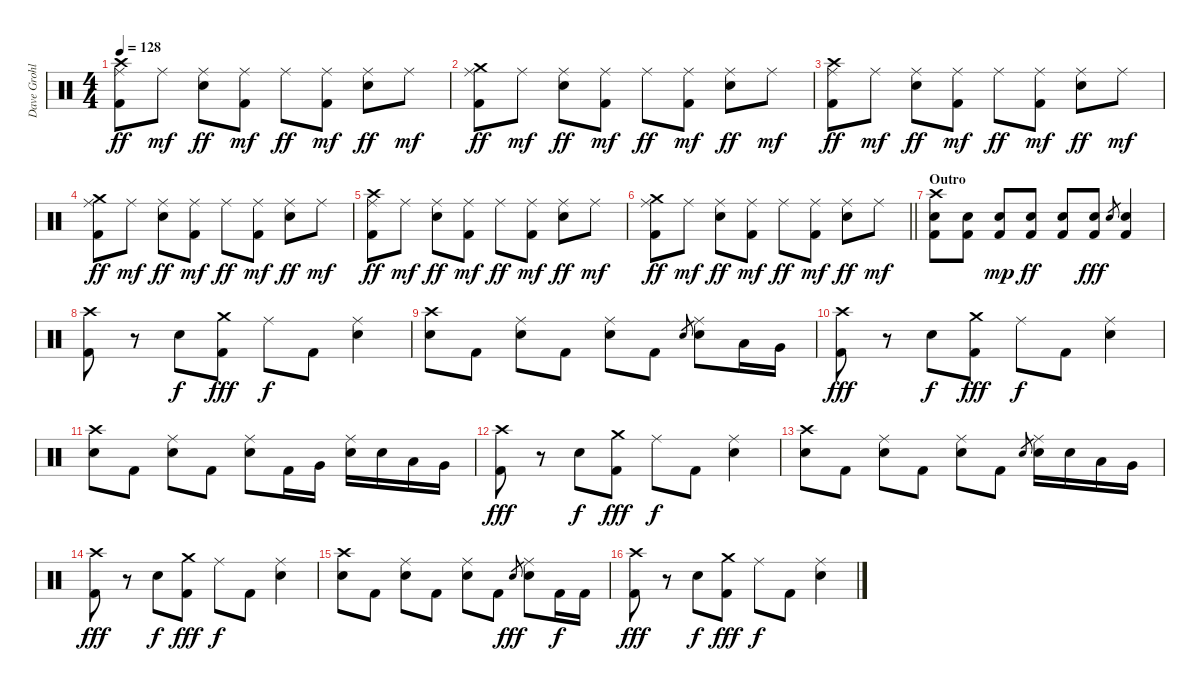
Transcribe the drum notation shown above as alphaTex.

\track ("Dave Grohl" "Dave Grohl") {instrument percussion}
\staff {score}
\articulation defaults
\ts (4 4)
\tempo 128
\clef neutral
\ks c
("Crash high (hit)" "Ride (middle)" "Kick (hit) 2").8{dy ff} "Ride (middle)".8{dy mf} ("Ride (middle)" "Snare (hit) 2").8{dy ff} ("Ride (middle)" "Kick (hit) 2").8{dy mf} "Ride (middle)".8{dy ff} ("Ride (middle)" "Kick (hit) 2").8{dy mf} ("Ride (middle)" "Snare (hit) 2").8{dy ff} "Ride (middle)".8{dy mf} |
("Crash medium (hit)" "Ride (middle)" "Kick (hit) 2").8{dy ff} "Ride (middle)".8{dy mf} ("Ride (middle)" "Snare (hit) 2").8{dy ff} ("Ride (middle)" "Kick (hit) 2").8{dy mf} "Ride (middle)".8{dy ff} ("Ride (middle)" "Kick (hit) 2").8{dy mf} ("Ride (middle)" "Snare (hit) 2").8{dy ff} "Ride (middle)".8{dy mf} |
("Crash high (hit)" "Ride (middle)" "Kick (hit) 2").8{dy ff} "Ride (middle)".8{dy mf} ("Ride (middle)" "Snare (hit) 2").8{dy ff} ("Ride (middle)" "Kick (hit) 2").8{dy mf} "Ride (middle)".8{dy ff} ("Ride (middle)" "Kick (hit) 2").8{dy mf} ("Ride (middle)" "Snare (hit) 2").8{dy ff} "Ride (middle)".8{dy mf} |
("Crash medium (hit)" "Ride (middle)" "Kick (hit) 2").8{dy ff} "Ride (middle)".8{dy mf} ("Ride (middle)" "Snare (hit) 2").8{dy ff} ("Ride (middle)" "Kick (hit) 2").8{dy mf} "Ride (middle)".8{dy ff} ("Ride (middle)" "Kick (hit) 2").8{dy mf} ("Ride (middle)" "Snare (hit) 2").8{dy ff} "Ride (middle)".8{dy mf} |
("Crash high (hit)" "Ride (middle)" "Kick (hit) 2").8{dy ff} "Ride (middle)".8{dy mf} ("Ride (middle)" "Snare (hit) 2").8{dy ff} ("Ride (middle)" "Kick (hit) 2").8{dy mf} "Ride (middle)".8{dy ff} ("Ride (middle)" "Kick (hit) 2").8{dy mf} ("Ride (middle)" "Snare (hit) 2").8{dy ff} "Ride (middle)".8{dy mf} |
\barLineRight lightlight
("Crash medium (hit)" "Ride (middle)" "Kick (hit) 2").8{dy ff} "Ride (middle)".8{dy mf} ("Ride (middle)" "Snare (hit) 2").8{dy ff} ("Ride (middle)" "Kick (hit) 2").8{dy mf} "Ride (middle)".8{dy ff} ("Ride (middle)" "Kick (hit) 2").8{dy mf} ("Ride (middle)" "Snare (hit) 2").8{dy ff} "Ride (middle)".8{dy mf} |
\section ("" "Outro")
("Crash high (hit)" "Snare (hit) 2" "Kick (hit) 2").8 ("Snare (hit) 2" "Kick (hit) 2").8 ("Snare (hit) 2" "Kick (hit) 2").8{dy mp} ("Snare (hit) 2" "Kick (hit) 2").8{dy ff} ("Snare (hit) 2" "Kick (hit) 2").8 ("Snare (hit) 2" "Kick (hit) 2").8{dy fff} "Snare (hit) 2".8{gr} ("Snare (hit) 2" "Kick (hit) 2").4 |
("Crash high (hit)" "Kick (hit) 2").8 r.8 "Snare (hit) 2".8{dy f} ("Crash medium (hit)" "Kick (hit) 2").8{dy fff} "Ride (middle)".8{dy f} "Kick (hit) 2".8 ("Ride (middle)" "Snare (hit) 2").4 |
("Crash high (hit)" "Snare (hit) 2").8 "Kick (hit) 2".8 ("Ride (middle)" "Snare (hit) 2").8 "Kick (hit) 2".8 ("Ride (middle)" "Snare (hit) 2").8 "Kick (hit) 2".8 "Snare (hit) 2".8{gr} ("Ride (middle)" "Snare (hit) 2").8 "Low Tom (hit)".16 "Very Low Tom (hit)".16 |
("Crash high (hit)" "Kick (hit) 2").8{dy fff} r.8 "Snare (hit) 2".8{dy f} ("Crash medium (hit)" "Kick (hit) 2").8{dy fff} "Ride (middle)".8{dy f} "Kick (hit) 2".8 ("Ride (middle)" "Snare (hit) 2").4 |
("Crash high (hit)" "Snare (hit) 2").8 "Kick (hit) 2".8 ("Ride (middle)" "Snare (hit) 2").8 "Kick (hit) 2".8 ("Ride (middle)" "Snare (hit) 2").8 "Kick (hit) 2".16 "Very Low Tom (hit)".16 ("Ride (middle)" "Snare (hit) 2").16 "Snare (hit) 2".16 "Low Tom (hit)".16 "Very Low Tom (hit)".16 |
("Crash high (hit)" "Kick (hit) 2").8{dy fff} r.8 "Snare (hit) 2".8{dy f} ("Crash medium (hit)" "Kick (hit) 2").8{dy fff} "Ride (middle)".8{dy f} "Kick (hit) 2".8 ("Ride (middle)" "Snare (hit) 2").4 |
("Crash high (hit)" "Snare (hit) 2").8 "Kick (hit) 2".8 ("Ride (middle)" "Snare (hit) 2").8 "Kick (hit) 2".8 ("Ride (middle)" "Snare (hit) 2").8 "Kick (hit) 2".8 "Snare (hit) 2".8{gr} ("Ride (middle)" "Snare (hit) 2").16 "Snare (hit) 2".16 "Low Tom (hit)".16 "Very Low Tom (hit)".16 |
("Crash high (hit)" "Kick (hit) 2").8{dy fff} r.8 "Snare (hit) 2".8{dy f} ("Crash medium (hit)" "Kick (hit) 2").8{dy fff} "Ride (middle)".8{dy f} "Kick (hit) 2".8 ("Ride (middle)" "Snare (hit) 2").4 |
("Crash high (hit)" "Snare (hit) 2").8 "Kick (hit) 2".8 ("Ride (middle)" "Snare (hit) 2").8 "Kick (hit) 2".8 ("Ride (middle)" "Snare (hit) 2").8 "Kick (hit) 2".8 "Snare (hit) 2".8{gr dy fff} ("Ride (middle)" "Snare (hit) 2").8 "Kick (hit) 2".16{dy f} "Kick (hit) 2".16 |
("Crash high (hit)" "Kick (hit) 2").8{dy fff} r.8 "Snare (hit) 2".8{dy f} ("Crash medium (hit)" "Kick (hit) 2").8{dy fff} "Ride (middle)".8{dy f} "Kick (hit) 2".8 ("Ride (middle)" "Snare (hit) 2").4
